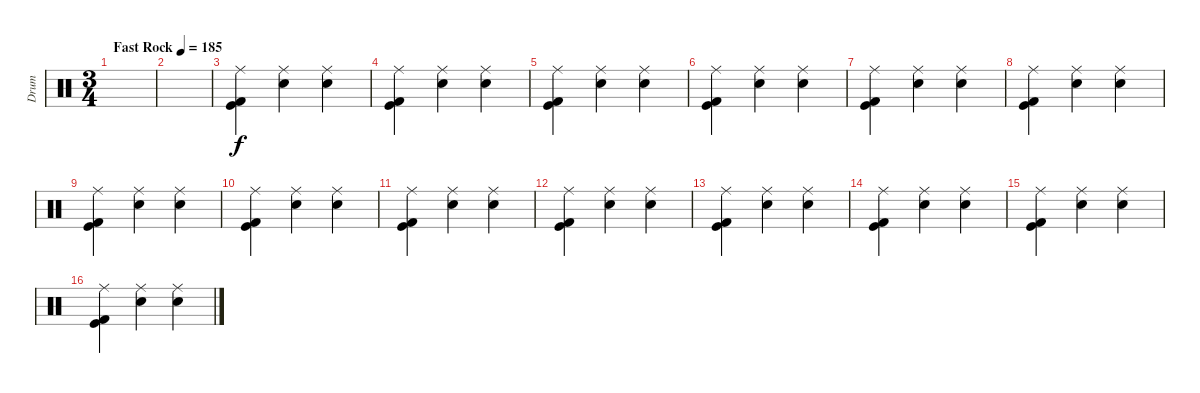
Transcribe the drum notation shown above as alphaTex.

\track ("Drum" "Drum") {instrument percussion}
\staff {score}
\articulation defaults
\ts (3 4)
\tempo (185 "Fast Rock")
\clef neutral
\ks c
|
|
("Ride (middle)" "Kick (hit)" "Kick (hit) 2").4 ("Ride (middle)" "Electric Snare (hit)").4 ("Ride (middle)" "Electric Snare (hit)").4 |
("Ride (middle)" "Kick (hit)" "Kick (hit) 2").4 ("Ride (middle)" "Electric Snare (hit)").4 ("Ride (middle)" "Electric Snare (hit)").4 |
("Ride (middle)" "Kick (hit)" "Kick (hit) 2").4 ("Ride (middle)" "Electric Snare (hit)").4 ("Ride (middle)" "Electric Snare (hit)").4 |
("Ride (middle)" "Kick (hit)" "Kick (hit) 2").4 ("Ride (middle)" "Electric Snare (hit)").4 ("Ride (middle)" "Electric Snare (hit)").4 |
("Ride (middle)" "Kick (hit)" "Kick (hit) 2").4 ("Ride (middle)" "Electric Snare (hit)").4 ("Ride (middle)" "Electric Snare (hit)").4 |
("Ride (middle)" "Kick (hit)" "Kick (hit) 2").4 ("Ride (middle)" "Electric Snare (hit)").4 ("Ride (middle)" "Electric Snare (hit)").4 |
("Ride (middle)" "Kick (hit)" "Kick (hit) 2").4 ("Ride (middle)" "Electric Snare (hit)").4 ("Ride (middle)" "Electric Snare (hit)").4 |
("Ride (middle)" "Kick (hit)" "Kick (hit) 2").4 ("Ride (middle)" "Electric Snare (hit)").4 ("Ride (middle)" "Electric Snare (hit)").4 |
("Ride (middle)" "Kick (hit)" "Kick (hit) 2").4 ("Ride (middle)" "Electric Snare (hit)").4 ("Ride (middle)" "Electric Snare (hit)").4 |
("Ride (middle)" "Kick (hit)" "Kick (hit) 2").4 ("Ride (middle)" "Electric Snare (hit)").4 ("Ride (middle)" "Electric Snare (hit)").4 |
("Ride (middle)" "Kick (hit)" "Kick (hit) 2").4 ("Ride (middle)" "Electric Snare (hit)").4 ("Ride (middle)" "Electric Snare (hit)").4 |
("Ride (middle)" "Kick (hit)" "Kick (hit) 2").4 ("Ride (middle)" "Electric Snare (hit)").4 ("Ride (middle)" "Electric Snare (hit)").4 |
("Ride (middle)" "Kick (hit)" "Kick (hit) 2").4 ("Ride (middle)" "Electric Snare (hit)").4 ("Ride (middle)" "Electric Snare (hit)").4 |
("Ride (middle)" "Kick (hit)" "Kick (hit) 2").4 ("Ride (middle)" "Electric Snare (hit)").4 ("Ride (middle)" "Electric Snare (hit)").4
